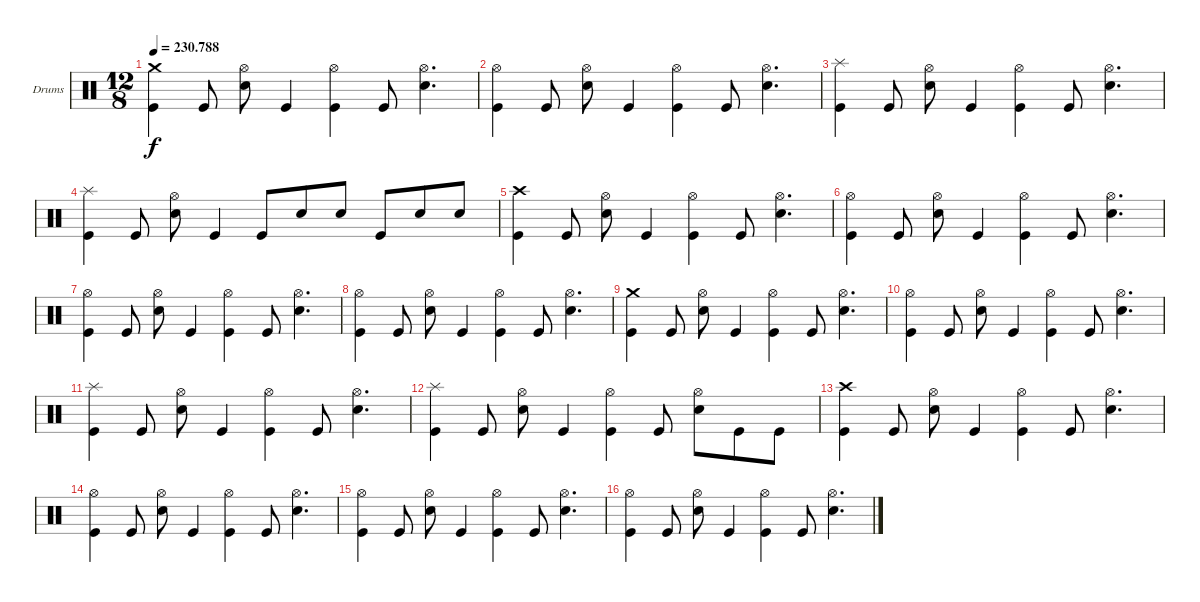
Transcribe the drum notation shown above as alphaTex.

\bracketExtendMode groupsimilarinstruments
\firstSystemTrackNameOrientation horizontal
\otherSystemsTrackNameOrientation horizontal
\track ("Ударные" "Drums") {instrument percussion}
\staff {score}
\articulation defaults
\ts (12 8)
\tempo
230.788
\accidentals auto
\clef neutral
\ottava regular
\simile none
\ks c
("Kick (hit)" "Crash medium (hit)").4{dy f} "Kick (hit)".8 ("Snare (hit) 2" "Hi-Hat (open)").8 "Kick (hit)".4 ("Kick (hit)" "Hi-Hat (open)").4 "Kick (hit)".8 ("Snare (hit) 2" "Hi-Hat (open)").4{d} |
("Hi-Hat (open)" "Kick (hit)").4 "Kick (hit)".8 ("Hi-Hat (open)" "Snare (hit) 2").8 "Kick (hit)".4 ("Hi-Hat (open)" "Kick (hit)").4 "Kick (hit)".8 ("Hi-Hat (open)" "Snare (hit) 2").4{d} |
("Splash (hit)" "Kick (hit)").4 "Kick (hit)".8 ("Hi-Hat (open)" "Snare (hit) 2").8 "Kick (hit)".4 ("Hi-Hat (open)" "Kick (hit)").4 "Kick (hit)".8 ("Hi-Hat (open)" "Snare (hit) 2").4{d} |
("Splash (hit)" "Kick (hit)").4 "Kick (hit)".8 ("Hi-Hat (open)" "Snare (hit) 2").8 "Kick (hit)".4 "Kick (hit)".8 "Snare (hit) 2".8 "Snare (hit) 2".8 "Kick (hit)".8 "Snare (hit) 2".8 "Snare (hit) 2".8 |
("Kick (hit)" "Crash high (hit)").4 "Kick (hit)".8 ("Snare (hit) 2" "Hi-Hat (open)").8 "Kick (hit)".4 ("Kick (hit)" "Hi-Hat (open)").4 "Kick (hit)".8 ("Snare (hit) 2" "Hi-Hat (open)").4{d} |
("Hi-Hat (open)" "Kick (hit)").4 "Kick (hit)".8 ("Hi-Hat (open)" "Snare (hit) 2").8 "Kick (hit)".4 ("Hi-Hat (open)" "Kick (hit)").4 "Kick (hit)".8 ("Hi-Hat (open)" "Snare (hit) 2").4{d} |
("Hi-Hat (open)" "Kick (hit)").4 "Kick (hit)".8 ("Hi-Hat (open)" "Snare (hit) 2").8 "Kick (hit)".4 ("Hi-Hat (open)" "Kick (hit)").4 "Kick (hit)".8 ("Hi-Hat (open)" "Snare (hit) 2").4{d} |
("Hi-Hat (open)" "Kick (hit)").4 "Kick (hit)".8 ("Hi-Hat (open)" "Snare (hit) 2").8 "Kick (hit)".4 ("Hi-Hat (open)" "Kick (hit)").4 "Kick (hit)".8 ("Hi-Hat (open)" "Snare (hit) 2").4{d} |
("Kick (hit)" "Crash medium (hit)").4 "Kick (hit)".8 ("Snare (hit) 2" "Hi-Hat (open)").8 "Kick (hit)".4 ("Kick (hit)" "Hi-Hat (open)").4 "Kick (hit)".8 ("Snare (hit) 2" "Hi-Hat (open)").4{d} |
("Hi-Hat (open)" "Kick (hit)").4 "Kick (hit)".8 ("Hi-Hat (open)" "Snare (hit) 2").8 "Kick (hit)".4 ("Hi-Hat (open)" "Kick (hit)").4 "Kick (hit)".8 ("Hi-Hat (open)" "Snare (hit) 2").4{d} |
("Splash (hit)" "Kick (hit)").4 "Kick (hit)".8 ("Hi-Hat (open)" "Snare (hit) 2").8 "Kick (hit)".4 ("Hi-Hat (open)" "Kick (hit)").4 "Kick (hit)".8 ("Hi-Hat (open)" "Snare (hit) 2").4{d} |
("Splash (hit)" "Kick (hit)").4 "Kick (hit)".8 ("Hi-Hat (open)" "Snare (hit) 2").8 "Kick (hit)".4 ("Hi-Hat (open)" "Kick (hit)").4 "Kick (hit)".8 ("Snare (hit) 2" "Hi-Hat (open)").8 "Kick (hit)".8 "Kick (hit)".8 |
("Kick (hit)" "Crash high (hit)").4 "Kick (hit)".8 ("Snare (hit) 2" "Hi-Hat (open)").8 "Kick (hit)".4 ("Kick (hit)" "Hi-Hat (open)").4 "Kick (hit)".8 ("Snare (hit) 2" "Hi-Hat (open)").4{d} |
("Hi-Hat (open)" "Kick (hit)").4 "Kick (hit)".8 ("Hi-Hat (open)" "Snare (hit) 2").8 "Kick (hit)".4 ("Hi-Hat (open)" "Kick (hit)").4 "Kick (hit)".8 ("Hi-Hat (open)" "Snare (hit) 2").4{d} |
("Hi-Hat (open)" "Kick (hit)").4 "Kick (hit)".8 ("Hi-Hat (open)" "Snare (hit) 2").8 "Kick (hit)".4 ("Hi-Hat (open)" "Kick (hit)").4 "Kick (hit)".8 ("Hi-Hat (open)" "Snare (hit) 2").4{d} |
("Hi-Hat (open)" "Kick (hit)").4 "Kick (hit)".8 ("Hi-Hat (open)" "Snare (hit) 2").8 "Kick (hit)".4 ("Hi-Hat (open)" "Kick (hit)").4 "Kick (hit)".8 ("Hi-Hat (open)" "Snare (hit) 2").4{d}
